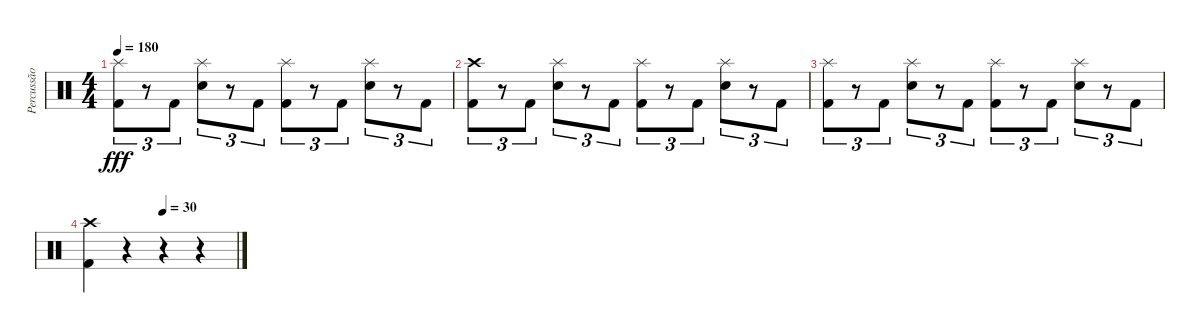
\track ("Percussão" "Percussão") {instrument percussion}
\staff {score}
\articulation defaults
\ts (4 4)
\tempo 180
\clef neutral
\ks c
("Splash (hit)" "Kick (hit) 2").8{tu (3 2) dy fff} r.8{tu (3 2)} "Kick (hit) 2".8{tu (3 2)} ("Splash (hit)" "Snare (hit) 2").8{tu (3 2)} r.8{tu (3 2)} "Kick (hit) 2".8{tu (3 2)} ("Splash (hit)" "Kick (hit) 2").8{tu (3 2)} r.8{tu (3 2)} "Kick (hit) 2".8{tu (3 2)} ("Splash (hit)" "Snare (hit) 2").8{tu (3 2)} r.8{tu (3 2)} "Kick (hit) 2".8{tu (3 2)} |
("Crash high (hit)" "Kick (hit) 2").8{tu (3 2)} r.8{tu (3 2)} "Kick (hit) 2".8{tu (3 2)} ("Splash (hit)" "Snare (hit) 2").8{tu (3 2)} r.8{tu (3 2)} "Kick (hit) 2".8{tu (3 2)} ("Splash (hit)" "Kick (hit) 2").8{tu (3 2)} r.8{tu (3 2)} "Kick (hit) 2".8{tu (3 2)} ("Splash (hit)" "Snare (hit) 2").8{tu (3 2)} r.8{tu (3 2)} "Kick (hit) 2".8{tu (3 2)} |
("Splash (hit)" "Kick (hit) 2").8{tu (3 2)} r.8{tu (3 2)} "Kick (hit) 2".8{tu (3 2)} ("Splash (hit)" "Snare (hit) 2").8{tu (3 2)} r.8{tu (3 2)} "Kick (hit) 2".8{tu (3 2)} ("Splash (hit)" "Kick (hit) 2").8{tu (3 2)} r.8{tu (3 2)} "Kick (hit) 2".8{tu (3 2)} ("Splash (hit)" "Snare (hit) 2").8{tu (3 2)} r.8{tu (3 2)} "Kick (hit) 2".8{tu (3 2)} |
\tempo (30 0.5)
("Crash high (hit)" "Kick (hit) 2").4 r.4 r.4 r.4
